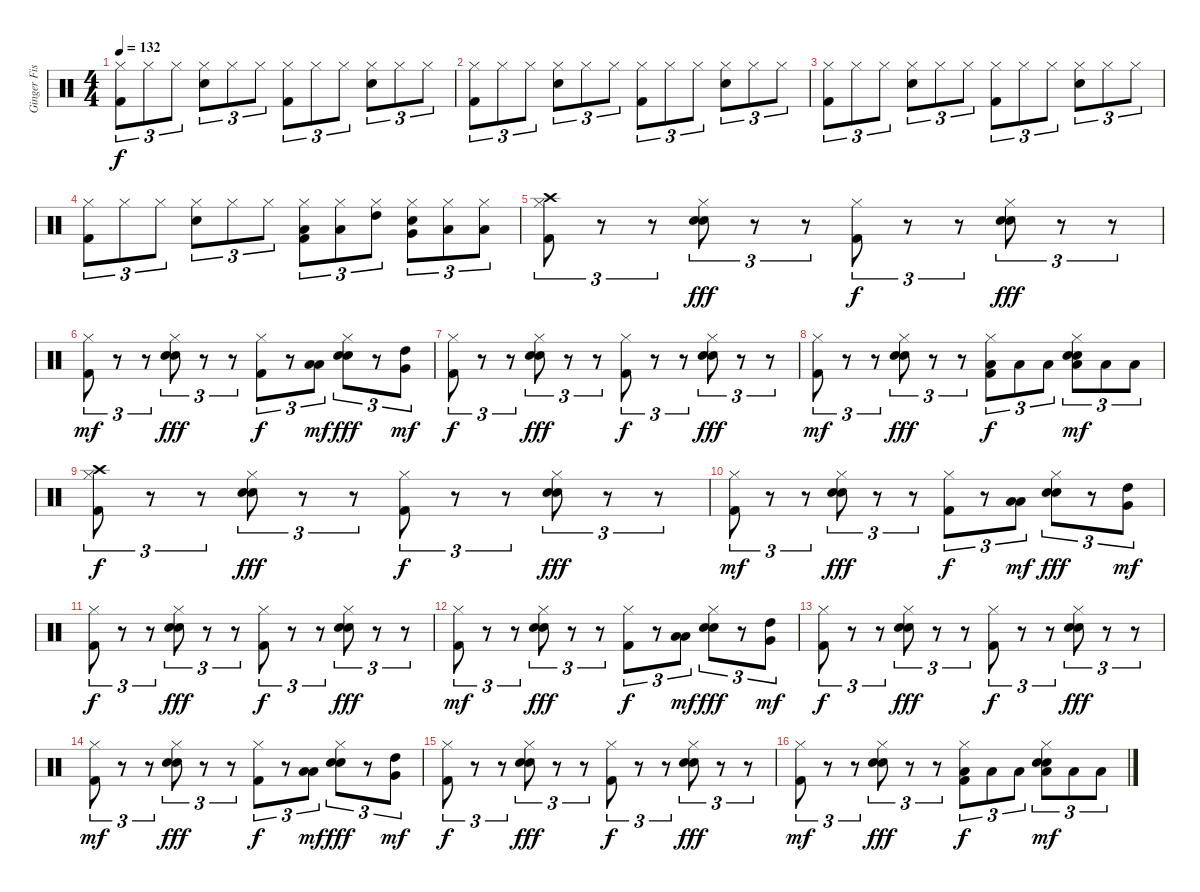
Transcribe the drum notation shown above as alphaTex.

\track ("Ginger Fish" "Ginger Fis") {instrument percussion}
\staff {score}
\articulation defaults
\ts (4 4)
\tempo 132
\clef neutral
\ks c
("Hi-Hat (closed)" "Kick (hit) 2").8{tu (3 2) dy f} "Hi-Hat (closed)".8{tu (3 2)} "Hi-Hat (closed)".8{tu (3 2)} ("Hi-Hat (closed)" "Snare (hit) 2").8{tu (3 2)} "Hi-Hat (closed)".8{tu (3 2)} "Hi-Hat (closed)".8{tu (3 2)} ("Hi-Hat (closed)" "Kick (hit) 2").8{tu (3 2)} "Hi-Hat (closed)".8{tu (3 2)} "Hi-Hat (closed)".8{tu (3 2)} ("Hi-Hat (closed)" "Snare (hit) 2").8{tu (3 2)} "Hi-Hat (closed)".8{tu (3 2)} "Hi-Hat (closed)".8{tu (3 2)} |
("Hi-Hat (closed)" "Kick (hit) 2").8{tu (3 2)} "Hi-Hat (closed)".8{tu (3 2)} "Hi-Hat (closed)".8{tu (3 2)} ("Hi-Hat (closed)" "Snare (hit) 2").8{tu (3 2)} "Hi-Hat (closed)".8{tu (3 2)} "Hi-Hat (closed)".8{tu (3 2)} ("Hi-Hat (closed)" "Kick (hit) 2").8{tu (3 2)} "Hi-Hat (closed)".8{tu (3 2)} "Hi-Hat (closed)".8{tu (3 2)} ("Hi-Hat (closed)" "Snare (hit) 2").8{tu (3 2)} "Hi-Hat (closed)".8{tu (3 2)} "Hi-Hat (closed)".8{tu (3 2)} |
("Hi-Hat (closed)" "Kick (hit) 2").8{tu (3 2)} "Hi-Hat (closed)".8{tu (3 2)} "Hi-Hat (closed)".8{tu (3 2)} ("Hi-Hat (closed)" "Snare (hit) 2").8{tu (3 2)} "Hi-Hat (closed)".8{tu (3 2)} "Hi-Hat (closed)".8{tu (3 2)} ("Hi-Hat (closed)" "Kick (hit) 2").8{tu (3 2)} "Hi-Hat (closed)".8{tu (3 2)} "Hi-Hat (closed)".8{tu (3 2)} ("Hi-Hat (closed)" "Snare (hit) 2").8{tu (3 2)} "Hi-Hat (closed)".8{tu (3 2)} "Hi-Hat (closed)".8{tu (3 2)} |
("Hi-Hat (closed)" "Kick (hit) 2").8{tu (3 2)} "Hi-Hat (closed)".8{tu (3 2)} "Hi-Hat (closed)".8{tu (3 2)} ("Hi-Hat (closed)" "Snare (hit) 2").8{tu (3 2)} "Hi-Hat (closed)".8{tu (3 2)} "Hi-Hat (closed)".8{tu (3 2)} ("Hi-Hat (closed)" "Low Tom (hit)" "Kick (hit) 2").8{tu (3 2)} ("Hi-Hat (closed)" "Low Tom (hit)").8{tu (3 2)} ("Hi-Hat (closed)" "High Tom (hit)").8{tu (3 2)} ("Hi-Hat (closed)" "Very Low Tom (hit)" "Snare (hit) 2").8{tu (3 2)} ("Hi-Hat (closed)" "Low Floor Tom (hit)").8{tu (3 2)} ("Hi-Hat (closed)" "Low Floor Tom (hit)").8{tu (3 2)} |
("Crash high (hit)" "Hi-Hat (closed)" "Kick (hit) 2").8{tu (3 2)} r.8{tu (3 2)} r.8{tu (3 2)} ("Hi-Hat (closed)" "Hand Clap (hit)" "Electric Snare (hit)").8{tu (3 2) dy fff} r.8{tu (3 2)} r.8{tu (3 2)} ("Hi-Hat (closed)" "Kick (hit) 2").8{tu (3 2) dy f} r.8{tu (3 2)} r.8{tu (3 2)} ("Hi-Hat (closed)" "Hand Clap (hit)" "Electric Snare (hit)").8{tu (3 2) dy fff} r.8{tu (3 2)} r.8{tu (3 2)} |
("Hi-Hat (closed)" "Kick (hit) 2").8{tu (3 2) dy mf} r.8{tu (3 2)} r.8{tu (3 2)} ("Hi-Hat (closed)" "Hand Clap (hit)" "Electric Snare (hit)").8{tu (3 2) dy fff} r.8{tu (3 2)} r.8{tu (3 2)} ("Hi-Hat (closed)" "Kick (hit) 2").8{tu (3 2) dy f} r.8{tu (3 2)} ("Low Floor Tom (hit)" "Low Tom (hit)").8{tu (3 2) dy mf} ("Hi-Hat (closed)" "Hand Clap (hit)" "Electric Snare (hit)").8{tu (3 2) dy fff} r.8{tu (3 2)} ("Very Low Tom (hit)" "High Tom (hit)").8{tu (3 2) dy mf} |
("Hi-Hat (closed)" "Kick (hit) 2").8{tu (3 2) dy f} r.8{tu (3 2)} r.8{tu (3 2)} ("Hi-Hat (closed)" "Hand Clap (hit)" "Electric Snare (hit)").8{tu (3 2) dy fff} r.8{tu (3 2)} r.8{tu (3 2)} ("Hi-Hat (closed)" "Kick (hit) 2").8{tu (3 2) dy f} r.8{tu (3 2)} r.8{tu (3 2)} ("Hi-Hat (closed)" "Hand Clap (hit)" "Electric Snare (hit)").8{tu (3 2) dy fff} r.8{tu (3 2)} r.8{tu (3 2)} |
("Hi-Hat (closed)" "Kick (hit) 2").8{tu (3 2) dy mf} r.8{tu (3 2)} r.8{tu (3 2)} ("Hi-Hat (closed)" "Hand Clap (hit)" "Electric Snare (hit)").8{tu (3 2) dy fff} r.8{tu (3 2)} r.8{tu (3 2)} ("Hi-Hat (closed)" "Low Tom (hit)" "Kick (hit) 2").8{tu (3 2) dy f} "Low Tom (hit)".8{tu (3 2)} "Low Tom (hit)".8{tu (3 2)} ("Hi-Hat (closed)" "Hand Clap (hit)" "Low Floor Tom (hit)" "Electric Snare (hit)").8{tu (3 2) dy mf} "Low Floor Tom (hit)".8{tu (3 2)} "Low Floor Tom (hit)".8{tu (3 2)} |
("Crash high (hit)" "Hi-Hat (closed)" "Kick (hit) 2").8{tu (3 2) dy f} r.8{tu (3 2)} r.8{tu (3 2)} ("Hi-Hat (closed)" "Hand Clap (hit)" "Electric Snare (hit)").8{tu (3 2) dy fff} r.8{tu (3 2)} r.8{tu (3 2)} ("Hi-Hat (closed)" "Kick (hit) 2").8{tu (3 2) dy f} r.8{tu (3 2)} r.8{tu (3 2)} ("Hi-Hat (closed)" "Hand Clap (hit)" "Electric Snare (hit)").8{tu (3 2) dy fff} r.8{tu (3 2)} r.8{tu (3 2)} |
("Hi-Hat (closed)" "Kick (hit) 2").8{tu (3 2) dy mf} r.8{tu (3 2)} r.8{tu (3 2)} ("Hi-Hat (closed)" "Hand Clap (hit)" "Electric Snare (hit)").8{tu (3 2) dy fff} r.8{tu (3 2)} r.8{tu (3 2)} ("Hi-Hat (closed)" "Kick (hit) 2").8{tu (3 2) dy f} r.8{tu (3 2)} ("Low Floor Tom (hit)" "Low Tom (hit)").8{tu (3 2) dy mf} ("Hi-Hat (closed)" "Hand Clap (hit)" "Electric Snare (hit)").8{tu (3 2) dy fff} r.8{tu (3 2)} ("Very Low Tom (hit)" "High Tom (hit)").8{tu (3 2) dy mf} |
("Hi-Hat (closed)" "Kick (hit) 2").8{tu (3 2) dy f} r.8{tu (3 2)} r.8{tu (3 2)} ("Hi-Hat (closed)" "Hand Clap (hit)" "Electric Snare (hit)").8{tu (3 2) dy fff} r.8{tu (3 2)} r.8{tu (3 2)} ("Hi-Hat (closed)" "Kick (hit) 2").8{tu (3 2) dy f} r.8{tu (3 2)} r.8{tu (3 2)} ("Hi-Hat (closed)" "Hand Clap (hit)" "Electric Snare (hit)").8{tu (3 2) dy fff} r.8{tu (3 2)} r.8{tu (3 2)} |
("Hi-Hat (closed)" "Kick (hit) 2").8{tu (3 2) dy mf} r.8{tu (3 2)} r.8{tu (3 2)} ("Hi-Hat (closed)" "Hand Clap (hit)" "Electric Snare (hit)").8{tu (3 2) dy fff} r.8{tu (3 2)} r.8{tu (3 2)} ("Hi-Hat (closed)" "Kick (hit) 2").8{tu (3 2) dy f} r.8{tu (3 2)} ("Low Floor Tom (hit)" "Low Tom (hit)").8{tu (3 2) dy mf} ("Hi-Hat (closed)" "Hand Clap (hit)" "Electric Snare (hit)").8{tu (3 2) dy fff} r.8{tu (3 2)} ("Very Low Tom (hit)" "High Tom (hit)").8{tu (3 2) dy mf} |
("Hi-Hat (closed)" "Kick (hit) 2").8{tu (3 2) dy f} r.8{tu (3 2)} r.8{tu (3 2)} ("Hi-Hat (closed)" "Hand Clap (hit)" "Electric Snare (hit)").8{tu (3 2) dy fff} r.8{tu (3 2)} r.8{tu (3 2)} ("Hi-Hat (closed)" "Kick (hit) 2").8{tu (3 2) dy f} r.8{tu (3 2)} r.8{tu (3 2)} ("Hi-Hat (closed)" "Hand Clap (hit)" "Electric Snare (hit)").8{tu (3 2) dy fff} r.8{tu (3 2)} r.8{tu (3 2)} |
("Hi-Hat (closed)" "Kick (hit) 2").8{tu (3 2) dy mf} r.8{tu (3 2)} r.8{tu (3 2)} ("Hi-Hat (closed)" "Hand Clap (hit)" "Electric Snare (hit)").8{tu (3 2) dy fff} r.8{tu (3 2)} r.8{tu (3 2)} ("Hi-Hat (closed)" "Kick (hit) 2").8{tu (3 2) dy f} r.8{tu (3 2)} ("Low Floor Tom (hit)" "Low Tom (hit)").8{tu (3 2) dy mf} ("Hi-Hat (closed)" "Hand Clap (hit)" "Electric Snare (hit)").8{tu (3 2) dy fff} r.8{tu (3 2)} ("Very Low Tom (hit)" "High Tom (hit)").8{tu (3 2) dy mf} |
("Hi-Hat (closed)" "Kick (hit) 2").8{tu (3 2) dy f} r.8{tu (3 2)} r.8{tu (3 2)} ("Hi-Hat (closed)" "Hand Clap (hit)" "Electric Snare (hit)").8{tu (3 2) dy fff} r.8{tu (3 2)} r.8{tu (3 2)} ("Hi-Hat (closed)" "Kick (hit) 2").8{tu (3 2) dy f} r.8{tu (3 2)} r.8{tu (3 2)} ("Hi-Hat (closed)" "Hand Clap (hit)" "Electric Snare (hit)").8{tu (3 2) dy fff} r.8{tu (3 2)} r.8{tu (3 2)} |
("Hi-Hat (closed)" "Kick (hit) 2").8{tu (3 2) dy mf} r.8{tu (3 2)} r.8{tu (3 2)} ("Hi-Hat (closed)" "Hand Clap (hit)" "Electric Snare (hit)").8{tu (3 2) dy fff} r.8{tu (3 2)} r.8{tu (3 2)} ("Hi-Hat (closed)" "Low Tom (hit)" "Kick (hit) 2").8{tu (3 2) dy f} "Low Tom (hit)".8{tu (3 2)} "Low Tom (hit)".8{tu (3 2)} ("Hi-Hat (closed)" "Hand Clap (hit)" "Low Floor Tom (hit)" "Electric Snare (hit)").8{tu (3 2) dy mf} "Low Floor Tom (hit)".8{tu (3 2)} "Low Floor Tom (hit)".8{tu (3 2)}
